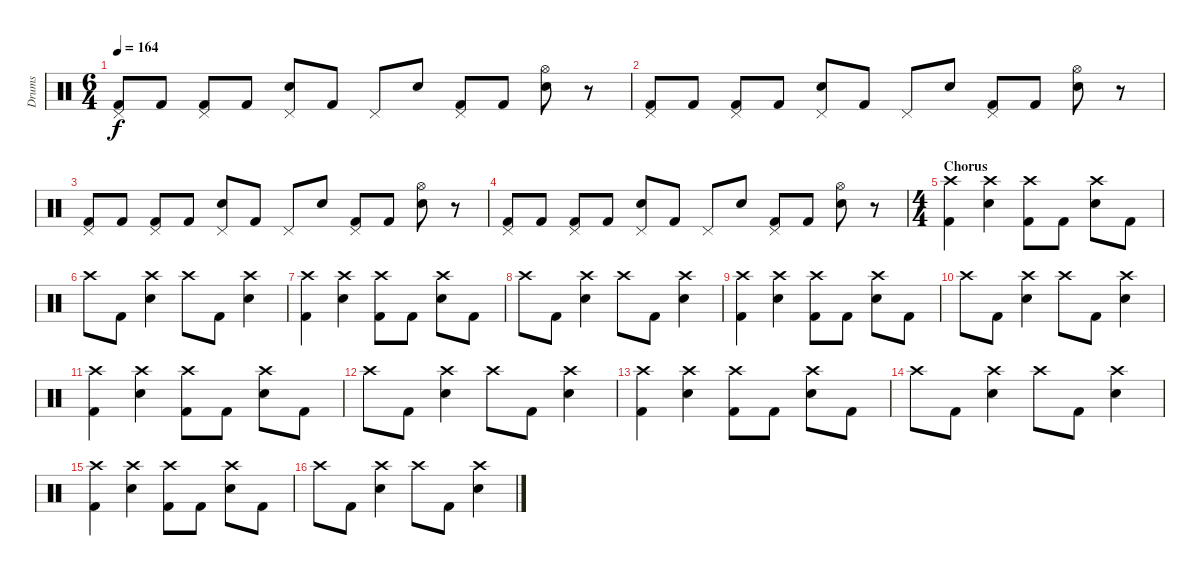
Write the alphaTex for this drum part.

\track ("Drums" "Drums") {instrument percussion}
\staff {score}
\articulation defaults
\ts (6 4)
\tempo 164
\clef neutral
\ks c
("Pedal Hi-Hat (hit)" "Kick (hit) 2").8{dy f} "Kick (hit) 2".8 ("Pedal Hi-Hat (hit)" "Kick (hit) 2").8 "Kick (hit) 2".8 ("Pedal Hi-Hat (hit)" "Electric Snare (hit)").8 "Kick (hit) 2".8 "Pedal Hi-Hat (hit)".8 "Electric Snare (hit)".8 ("Pedal Hi-Hat (hit)" "Kick (hit) 2").8 "Kick (hit) 2".8 ("Hi-Hat (open)" "Electric Snare (hit)").8 r.8 |
("Pedal Hi-Hat (hit)" "Kick (hit) 2").8 "Kick (hit) 2".8 ("Pedal Hi-Hat (hit)" "Kick (hit) 2").8 "Kick (hit) 2".8 ("Pedal Hi-Hat (hit)" "Electric Snare (hit)").8 "Kick (hit) 2".8 "Pedal Hi-Hat (hit)".8 "Electric Snare (hit)".8 ("Pedal Hi-Hat (hit)" "Kick (hit) 2").8 "Kick (hit) 2".8 ("Hi-Hat (open)" "Electric Snare (hit)").8 r.8 |
("Pedal Hi-Hat (hit)" "Kick (hit) 2").8 "Kick (hit) 2".8 ("Pedal Hi-Hat (hit)" "Kick (hit) 2").8 "Kick (hit) 2".8 ("Pedal Hi-Hat (hit)" "Electric Snare (hit)").8 "Kick (hit) 2".8 "Pedal Hi-Hat (hit)".8 "Electric Snare (hit)".8 ("Pedal Hi-Hat (hit)" "Kick (hit) 2").8 "Kick (hit) 2".8 ("Hi-Hat (open)" "Electric Snare (hit)").8 r.8 |
("Pedal Hi-Hat (hit)" "Kick (hit) 2").8 "Kick (hit) 2".8 ("Pedal Hi-Hat (hit)" "Kick (hit) 2").8 "Kick (hit) 2".8 ("Pedal Hi-Hat (hit)" "Electric Snare (hit)").8 "Kick (hit) 2".8 "Pedal Hi-Hat (hit)".8 "Electric Snare (hit)".8 ("Pedal Hi-Hat (hit)" "Kick (hit) 2").8 "Kick (hit) 2".8 ("Hi-Hat (open)" "Electric Snare (hit)").8 r.8 |
\ts (4 4)
\section ("" "Chorus")
("Crash high (hit)" "Kick (hit) 2").4 ("Crash high (hit)" "Electric Snare (hit)").4 ("Crash high (hit)" "Kick (hit) 2").8 "Kick (hit) 2".8 ("Crash high (hit)" "Electric Snare (hit)").8 "Kick (hit) 2".8 |
"Crash high (hit)".8 "Kick (hit) 2".8 ("Crash high (hit)" "Electric Snare (hit)").4 "Crash high (hit)".8 "Kick (hit) 2".8 ("Crash high (hit)" "Electric Snare (hit)").4 |
("Crash high (hit)" "Kick (hit) 2").4 ("Crash high (hit)" "Electric Snare (hit)").4 ("Crash high (hit)" "Kick (hit) 2").8 "Kick (hit) 2".8 ("Crash high (hit)" "Electric Snare (hit)").8 "Kick (hit) 2".8 |
"Crash high (hit)".8 "Kick (hit) 2".8 ("Crash high (hit)" "Electric Snare (hit)").4 "Crash high (hit)".8 "Kick (hit) 2".8 ("Crash high (hit)" "Electric Snare (hit)").4 |
("Crash high (hit)" "Kick (hit) 2").4 ("Crash high (hit)" "Electric Snare (hit)").4 ("Crash high (hit)" "Kick (hit) 2").8 "Kick (hit) 2".8 ("Crash high (hit)" "Electric Snare (hit)").8 "Kick (hit) 2".8 |
"Crash high (hit)".8 "Kick (hit) 2".8 ("Crash high (hit)" "Electric Snare (hit)").4 "Crash high (hit)".8 "Kick (hit) 2".8 ("Crash high (hit)" "Electric Snare (hit)").4 |
("Crash high (hit)" "Kick (hit) 2").4 ("Crash high (hit)" "Electric Snare (hit)").4 ("Crash high (hit)" "Kick (hit) 2").8 "Kick (hit) 2".8 ("Crash high (hit)" "Electric Snare (hit)").8 "Kick (hit) 2".8 |
"Crash high (hit)".8 "Kick (hit) 2".8 ("Crash high (hit)" "Electric Snare (hit)").4 "Crash high (hit)".8 "Kick (hit) 2".8 ("Crash high (hit)" "Electric Snare (hit)").4 |
("Crash high (hit)" "Kick (hit) 2").4 ("Crash high (hit)" "Electric Snare (hit)").4 ("Crash high (hit)" "Kick (hit) 2").8 "Kick (hit) 2".8 ("Crash high (hit)" "Electric Snare (hit)").8 "Kick (hit) 2".8 |
"Crash high (hit)".8 "Kick (hit) 2".8 ("Crash high (hit)" "Electric Snare (hit)").4 "Crash high (hit)".8 "Kick (hit) 2".8 ("Crash high (hit)" "Electric Snare (hit)").4 |
("Crash high (hit)" "Kick (hit) 2").4 ("Crash high (hit)" "Electric Snare (hit)").4 ("Crash high (hit)" "Kick (hit) 2").8 "Kick (hit) 2".8 ("Crash high (hit)" "Electric Snare (hit)").8 "Kick (hit) 2".8 |
"Crash high (hit)".8 "Kick (hit) 2".8 ("Crash high (hit)" "Electric Snare (hit)").4 "Crash high (hit)".8 "Kick (hit) 2".8 ("Crash high (hit)" "Electric Snare (hit)").4
